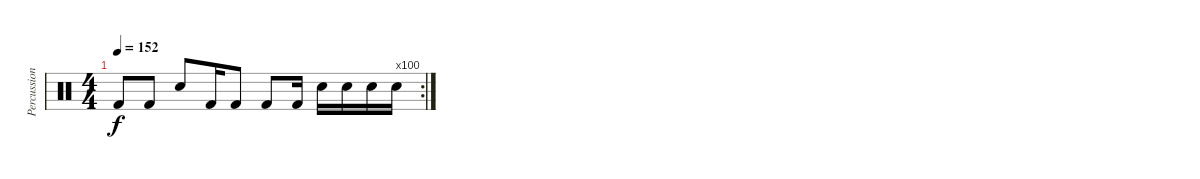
\track ("Percussion" "Percussion") {instrument percussion}
\staff {score}
\articulation defaults
\rc 100
\ts (4 4)
\tempo 152
\clef neutral
\ks c "Kick (hit) 2".8{dy f} "Kick (hit) 2".8 "Electric Snare (hit)".8 "Kick (hit) 2".16 "Kick (hit) 2".8 "Kick (hit) 2".8 "Kick (hit) 2".16 "Electric Snare (hit)".16 "Electric Snare (hit)".16 "Electric Snare (hit)".16 "Electric Snare (hit)".16
